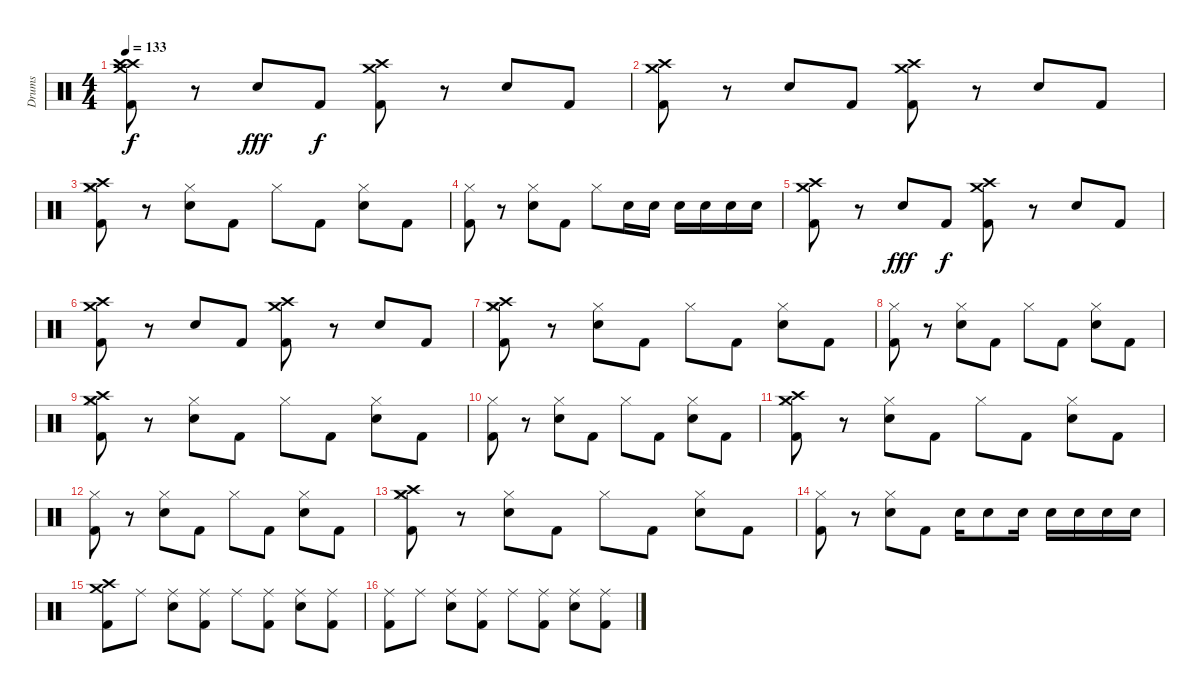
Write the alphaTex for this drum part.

\track ("Drums" "Drums") {instrument percussion}
\staff {score}
\articulation defaults
\ts (4 4)
\tempo 133
\clef neutral
\ks c
("Crash high (hit)" "Crash high (hit)" "Crash medium (hit)" "Kick (hit) 2").8{dy f} r.8 "Snare (hit) 2".8{dy fff} "Kick (hit) 2".8{dy f} ("Crash high (hit)" "Crash medium (hit)" "Kick (hit) 2").8 r.8 "Snare (hit) 2".8 "Kick (hit) 2".8 |
("Crash high (hit)" "Crash medium (hit)" "Kick (hit) 2").8 r.8 "Snare (hit) 2".8 "Kick (hit) 2".8 ("Crash high (hit)" "Crash medium (hit)" "Kick (hit) 2").8 r.8 "Snare (hit) 2".8 "Kick (hit) 2".8 |
("Crash high (hit)" "Crash medium (hit)" "Hi-Hat (closed)" "Kick (hit) 2").8 r.8 ("Hi-Hat (closed)" "Snare (hit) 2").8 "Kick (hit) 2".8 "Hi-Hat (closed)".8 "Kick (hit) 2".8 ("Hi-Hat (closed)" "Snare (hit) 2").8 "Kick (hit) 2".8 |
("Hi-Hat (closed)" "Kick (hit) 2").8 r.8 ("Hi-Hat (closed)" "Snare (hit) 2").8 "Kick (hit) 2".8 "Hi-Hat (closed)".8 "Snare (hit) 2".16 "Snare (hit) 2".16 "Snare (hit) 2".16 "Snare (hit) 2".16 "Snare (hit) 2".16 "Snare (hit) 2".16 |
("Crash high (hit)" "Crash medium (hit)" "Kick (hit) 2").8 r.8 "Snare (hit) 2".8{dy fff} "Kick (hit) 2".8{dy f} ("Crash high (hit)" "Crash medium (hit)" "Kick (hit) 2").8 r.8 "Snare (hit) 2".8 "Kick (hit) 2".8 |
("Crash high (hit)" "Crash medium (hit)" "Kick (hit) 2").8 r.8 "Snare (hit) 2".8 "Kick (hit) 2".8 ("Crash high (hit)" "Crash medium (hit)" "Kick (hit) 2").8 r.8 "Snare (hit) 2".8 "Kick (hit) 2".8 |
("Crash high (hit)" "Crash medium (hit)" "Hi-Hat (closed)" "Kick (hit) 2").8 r.8 ("Hi-Hat (closed)" "Snare (hit) 2").8 "Kick (hit) 2".8 "Hi-Hat (closed)".8 "Kick (hit) 2".8 ("Hi-Hat (closed)" "Snare (hit) 2").8 "Kick (hit) 2".8 |
("Hi-Hat (closed)" "Kick (hit) 2").8 r.8 ("Hi-Hat (closed)" "Snare (hit) 2").8 "Kick (hit) 2".8 "Hi-Hat (closed)".8 "Kick (hit) 2".8 ("Hi-Hat (closed)" "Snare (hit) 2").8 "Kick (hit) 2".8 |
("Crash high (hit)" "Crash medium (hit)" "Hi-Hat (closed)" "Kick (hit) 2").8 r.8 ("Hi-Hat (closed)" "Snare (hit) 2").8 "Kick (hit) 2".8 "Hi-Hat (closed)".8 "Kick (hit) 2".8 ("Hi-Hat (closed)" "Snare (hit) 2").8 "Kick (hit) 2".8 |
("Hi-Hat (closed)" "Kick (hit) 2").8 r.8 ("Hi-Hat (closed)" "Snare (hit) 2").8 "Kick (hit) 2".8 "Hi-Hat (closed)".8 "Kick (hit) 2".8 ("Hi-Hat (closed)" "Snare (hit) 2").8 "Kick (hit) 2".8 |
("Crash high (hit)" "Crash medium (hit)" "Hi-Hat (closed)" "Kick (hit) 2").8 r.8 ("Hi-Hat (closed)" "Snare (hit) 2").8 "Kick (hit) 2".8 "Hi-Hat (closed)".8 "Kick (hit) 2".8 ("Hi-Hat (closed)" "Snare (hit) 2").8 "Kick (hit) 2".8 |
("Hi-Hat (closed)" "Kick (hit) 2").8 r.8 ("Hi-Hat (closed)" "Snare (hit) 2").8 "Kick (hit) 2".8 "Hi-Hat (closed)".8 "Kick (hit) 2".8 ("Hi-Hat (closed)" "Snare (hit) 2").8 "Kick (hit) 2".8 |
("Crash high (hit)" "Crash medium (hit)" "Hi-Hat (closed)" "Kick (hit) 2").8 r.8 ("Hi-Hat (closed)" "Snare (hit) 2").8 "Kick (hit) 2".8 "Hi-Hat (closed)".8 "Kick (hit) 2".8 ("Hi-Hat (closed)" "Snare (hit) 2").8 "Kick (hit) 2".8 |
("Hi-Hat (closed)" "Kick (hit) 2").8 r.8 ("Hi-Hat (closed)" "Snare (hit) 2").8 "Kick (hit) 2".8 "Snare (hit) 2".16 "Snare (hit) 2".8 "Snare (hit) 2".16 "Snare (hit) 2".16 "Snare (hit) 2".16 "Snare (hit) 2".16 "Snare (hit) 2".16 |
("Crash high (hit)" "Crash medium (hit)" "Kick (hit) 2").8 "Ride (middle)".8 ("Ride (middle)" "Snare (hit) 2").8 ("Ride (middle)" "Kick (hit) 2").8 "Ride (middle)".8 ("Ride (middle)" "Kick (hit) 2").8 ("Ride (middle)" "Snare (hit) 2").8 ("Ride (middle)" "Kick (hit) 2").8 |
("Ride (middle)" "Kick (hit) 2").8 "Ride (middle)".8 ("Ride (middle)" "Snare (hit) 2").8 ("Ride (middle)" "Kick (hit) 2").8 "Ride (middle)".8 ("Ride (middle)" "Kick (hit) 2").8 ("Ride (middle)" "Snare (hit) 2").8 ("Ride (middle)" "Kick (hit) 2").8
